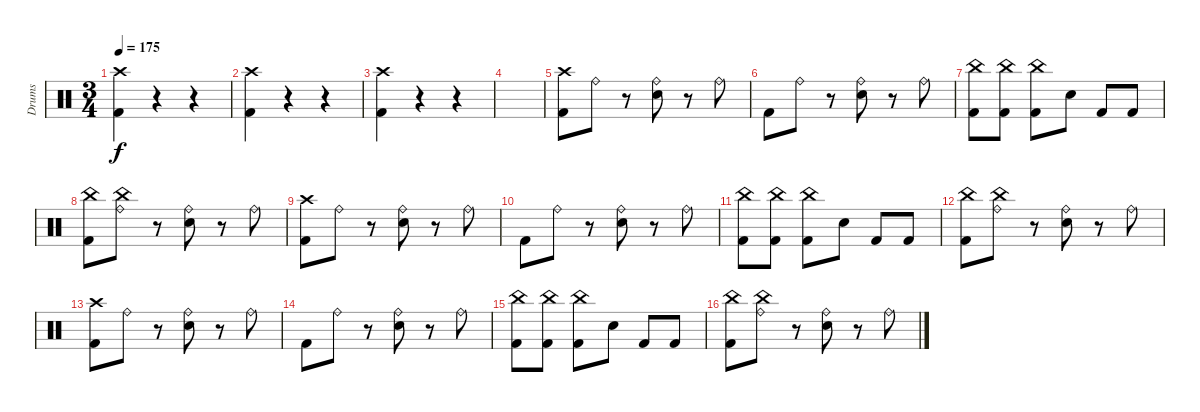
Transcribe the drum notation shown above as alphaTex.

\track ("Drums" "Drums") {instrument percussion}
\staff {score}
\articulation defaults
\ts (3 4)
\tempo 175
\clef neutral
\ks c
("Crash high (hit)" "Kick (hit) 2").4{dy f} r.4 r.4 |
("Crash high (hit)" "Kick (hit) 2").4 r.4 r.4 |
("Crash high (hit)" "Kick (hit) 2").4 r.4 r.4 |
|
("Crash high (hit)" "Kick (hit) 2").8 "Ride (bell)".8 r.8 ("Ride (bell)" "Electric Snare (hit)").8 r.8 "Ride (bell)".8 |
"Kick (hit) 2".8 "Ride (bell)".8 r.8 ("Ride (bell)" "Electric Snare (hit)").8 r.8 "Ride (bell)".8 |
("China (hit)" "Kick (hit) 2").8 ("China (hit)" "Kick (hit) 2").8 ("China (hit)" "Kick (hit) 2").8 "Electric Snare (hit)".8 "Kick (hit) 2".8 "Kick (hit) 2".8 |
("China (hit)" "Kick (hit) 2").8 ("China (hit)" "Ride (bell)").8 r.8 ("Ride (bell)" "Electric Snare (hit)").8 r.8 "Ride (bell)".8 |
("Crash high (hit)" "Kick (hit) 2").8 "Ride (bell)".8 r.8 ("Ride (bell)" "Electric Snare (hit)").8 r.8 "Ride (bell)".8 |
"Kick (hit) 2".8 "Ride (bell)".8 r.8 ("Ride (bell)" "Electric Snare (hit)").8 r.8 "Ride (bell)".8 |
("China (hit)" "Kick (hit) 2").8 ("China (hit)" "Kick (hit) 2").8 ("China (hit)" "Kick (hit) 2").8 "Electric Snare (hit)".8 "Kick (hit) 2".8 "Kick (hit) 2".8 |
("China (hit)" "Kick (hit) 2").8 ("China (hit)" "Ride (bell)").8 r.8 ("Ride (bell)" "Electric Snare (hit)").8 r.8 "Ride (bell)".8 |
("Crash high (hit)" "Kick (hit) 2").8 "Ride (bell)".8 r.8 ("Ride (bell)" "Electric Snare (hit)").8 r.8 "Ride (bell)".8 |
"Kick (hit) 2".8 "Ride (bell)".8 r.8 ("Ride (bell)" "Electric Snare (hit)").8 r.8 "Ride (bell)".8 |
("China (hit)" "Kick (hit) 2").8 ("China (hit)" "Kick (hit) 2").8 ("China (hit)" "Kick (hit) 2").8 "Electric Snare (hit)".8 "Kick (hit) 2".8 "Kick (hit) 2".8 |
("China (hit)" "Kick (hit) 2").8 ("China (hit)" "Ride (bell)").8 r.8 ("Ride (bell)" "Electric Snare (hit)").8 r.8 "Ride (bell)".8
